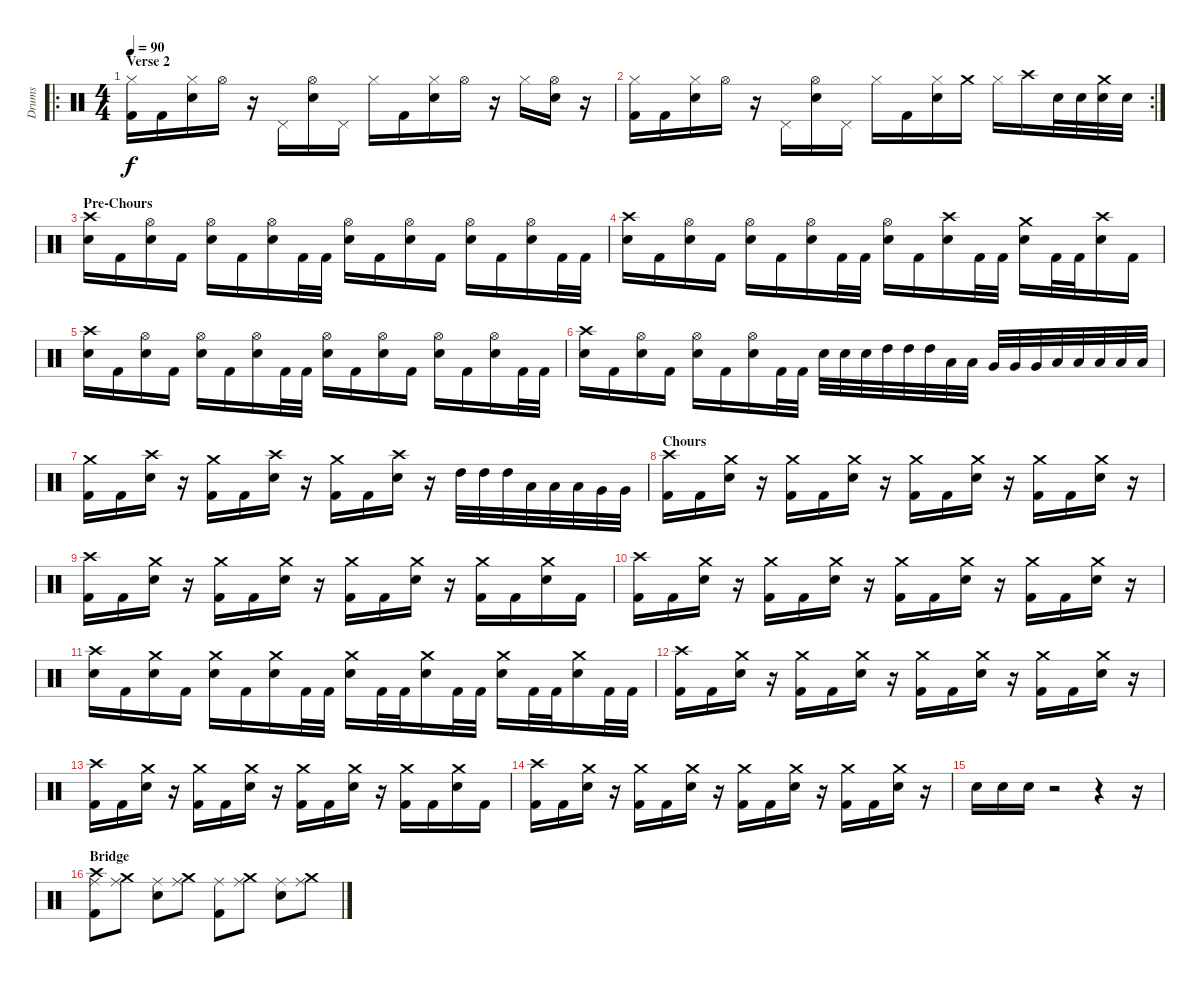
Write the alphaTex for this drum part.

\track ("Drums" "Drums") {instrument percussion}
\staff {score}
\articulation defaults
\ro
\ts (4 4)
\section ("" "Verse 2")
\tempo 90
\clef neutral
\ks c
("Hi-Hat (closed)" "Kick (hit) 2").16{dy f} "Kick (hit) 2".16 ("Hi-Hat (closed)" "Snare (hit) 2").16 "Hi-Hat (open)".16 r.16 "Pedal Hi-Hat (hit)".16 ("Hi-Hat (open)" "Snare (hit) 2").16 "Pedal Hi-Hat (hit)".16 "Hi-Hat (closed)".16 "Kick (hit) 2".16 ("Hi-Hat (closed)" "Snare (hit) 2").16 "Hi-Hat (open)".16 r.16 "Hi-Hat (closed)".16 ("Hi-Hat (open)" "Snare (hit) 2").16 r.16 |
\rc 2
("Hi-Hat (closed)" "Kick (hit) 2").16 "Kick (hit) 2".16 ("Hi-Hat (closed)" "Snare (hit) 2").16 "Hi-Hat (open)".16 r.16 "Pedal Hi-Hat (hit)".16 ("Hi-Hat (open)" "Snare (hit) 2").16 "Pedal Hi-Hat (hit)".16 "Hi-Hat (closed)".16 "Kick (hit) 2".16 ("Hi-Hat (closed)" "Snare (hit) 2").16 "Crash medium (hit)".16 "Hi-Hat (closed)".16 "Crash high (hit)".16 "Snare (hit) 2".32 "Snare (hit) 2".32 ("Crash medium (hit)" "Snare (hit) 2").32 "Snare (hit) 2".32 |
\section ("" "Pre-Chours")
("Crash high (hit)" "Snare (hit) 2").16 "Kick (hit) 2".16 ("Hi-Hat (open)" "Snare (hit) 2").16 "Kick (hit) 2".16 ("Hi-Hat (open)" "Snare (hit) 2").16 "Kick (hit) 2".16 ("Hi-Hat (open)" "Snare (hit) 2").16 "Kick (hit) 2".32 "Kick (hit) 2".32 ("Hi-Hat (open)" "Snare (hit) 2").16 "Kick (hit) 2".16 ("Hi-Hat (open)" "Snare (hit) 2").16 "Kick (hit) 2".16 ("Hi-Hat (open)" "Snare (hit) 2").16 "Kick (hit) 2".16 ("Hi-Hat (open)" "Snare (hit) 2").16 "Kick (hit) 2".32 "Kick (hit) 2".32 |
("Crash high (hit)" "Snare (hit) 2").16 "Kick (hit) 2".16 ("Hi-Hat (open)" "Snare (hit) 2").16 "Kick (hit) 2".16 ("Hi-Hat (open)" "Snare (hit) 2").16 "Kick (hit) 2".16 ("Hi-Hat (open)" "Snare (hit) 2").16 "Kick (hit) 2".32 "Kick (hit) 2".32 ("Hi-Hat (open)" "Snare (hit) 2").16 "Kick (hit) 2".16 ("Crash high (hit)" "Snare (hit) 2").16 "Kick (hit) 2".32 "Kick (hit) 2".32 ("Crash medium (hit)" "Snare (hit) 2").16 "Kick (hit) 2".32 "Kick (hit) 2".32 ("Crash high (hit)" "Snare (hit) 2").16 "Kick (hit) 2".16 |
("Crash high (hit)" "Snare (hit) 2").16 "Kick (hit) 2".16 ("Hi-Hat (open)" "Snare (hit) 2").16 "Kick (hit) 2".16 ("Hi-Hat (open)" "Snare (hit) 2").16 "Kick (hit) 2".16 ("Hi-Hat (open)" "Snare (hit) 2").16 "Kick (hit) 2".32 "Kick (hit) 2".32 ("Hi-Hat (open)" "Snare (hit) 2").16 "Kick (hit) 2".16 ("Hi-Hat (open)" "Snare (hit) 2").16 "Kick (hit) 2".16 ("Hi-Hat (open)" "Snare (hit) 2").16 "Kick (hit) 2".16 ("Hi-Hat (open)" "Snare (hit) 2").16 "Kick (hit) 2".32 "Kick (hit) 2".32 |
("Crash high (hit)" "Snare (hit) 2").16 "Kick (hit) 2".16 ("Hi-Hat (open)" "Snare (hit) 2").16 "Kick (hit) 2".16 ("Hi-Hat (open)" "Snare (hit) 2").16 "Kick (hit) 2".16 ("Hi-Hat (open)" "Snare (hit) 2").16 "Kick (hit) 2".32 "Kick (hit) 2".32 "Snare (hit) 2".32 "Snare (hit) 2".32 "Snare (hit) 2".32 "High Tom (hit)".32 "High Tom (hit)".32 "High Tom (hit)".32 "Low Tom (hit)".32 "Low Tom (hit)".32 "Very Low Tom (hit)".32 "Very Low Tom (hit)".32 "Very Low Tom (hit)".32 "Low Floor Tom (hit)".32 "Low Floor Tom (hit)".32 "Low Floor Tom (hit)".32 "Low Floor Tom (hit)".32 "Low Floor Tom (hit)".32 |
("Crash medium (hit)" "Kick (hit) 2").16 "Kick (hit) 2".16 ("Crash high (hit)" "Snare (hit) 2").16 r.16 ("Crash medium (hit)" "Kick (hit) 2").16 "Kick (hit) 2".16 ("Crash high (hit)" "Snare (hit) 2").16 r.16 ("Crash medium (hit)" "Kick (hit) 2").16 "Kick (hit) 2".16 ("Crash high (hit)" "Snare (hit) 2").16 r.16 "High Tom (hit)".32 "High Tom (hit)".32 "High Tom (hit)".32 "Low Tom (hit)".32 "Low Tom (hit)".32 "Low Tom (hit)".32 "Very Low Tom (hit)".32 "Very Low Tom (hit)".32 |
\section ("" "Chours")
("Crash high (hit)" "Kick (hit) 2").16 "Kick (hit) 2".16 ("Crash medium (hit)" "Snare (hit) 2").16 r.16 ("Crash medium (hit)" "Kick (hit) 2").16 "Kick (hit) 2".16 ("Crash medium (hit)" "Snare (hit) 2").16 r.16 ("Crash medium (hit)" "Kick (hit) 2").16 "Kick (hit) 2".16 ("Crash medium (hit)" "Snare (hit) 2").16 r.16 ("Crash medium (hit)" "Kick (hit) 2").16 "Kick (hit) 2".16 ("Crash medium (hit)" "Snare (hit) 2").16 r.16 |
("Crash high (hit)" "Kick (hit) 2").16 "Kick (hit) 2".16 ("Crash medium (hit)" "Snare (hit) 2").16 r.16 ("Crash medium (hit)" "Kick (hit) 2").16 "Kick (hit) 2".16 ("Crash medium (hit)" "Snare (hit) 2").16 r.16 ("Crash medium (hit)" "Kick (hit) 2").16 "Kick (hit) 2".16 ("Crash medium (hit)" "Snare (hit) 2").16 r.16 ("Crash medium (hit)" "Kick (hit) 2").16 "Kick (hit) 2".16 ("Crash medium (hit)" "Snare (hit) 2").16 "Kick (hit) 2".16 |
("Crash high (hit)" "Kick (hit) 2").16 "Kick (hit) 2".16 ("Crash medium (hit)" "Snare (hit) 2").16 r.16 ("Crash medium (hit)" "Kick (hit) 2").16 "Kick (hit) 2".16 ("Crash medium (hit)" "Snare (hit) 2").16 r.16 ("Crash medium (hit)" "Kick (hit) 2").16 "Kick (hit) 2".16 ("Crash medium (hit)" "Snare (hit) 2").16 r.16 ("Crash medium (hit)" "Kick (hit) 2").16 "Kick (hit) 2".16 ("Crash medium (hit)" "Snare (hit) 2").16 r.16 |
("Crash high (hit)" "Snare (hit) 2").16 "Kick (hit) 2".16 ("Crash medium (hit)" "Snare (hit) 2").16 "Kick (hit) 2".16 ("Crash medium (hit)" "Snare (hit) 2").16 "Kick (hit) 2".16 ("Crash medium (hit)" "Snare (hit) 2").16 "Kick (hit) 2".32 "Kick (hit) 2".32 ("Crash medium (hit)" "Snare (hit) 2").16 "Kick (hit) 2".32 "Kick (hit) 2".32 ("Crash medium (hit)" "Snare (hit) 2").16 "Kick (hit) 2".32 "Kick (hit) 2".32 ("Crash medium (hit)" "Snare (hit) 2").16 "Kick (hit) 2".32 "Kick (hit) 2".32 ("Crash medium (hit)" "Snare (hit) 2").16 "Kick (hit) 2".32 "Kick (hit) 2".32 |
("Crash high (hit)" "Kick (hit) 2").16 "Kick (hit) 2".16 ("Crash medium (hit)" "Snare (hit) 2").16 r.16 ("Crash medium (hit)" "Kick (hit) 2").16 "Kick (hit) 2".16 ("Crash medium (hit)" "Snare (hit) 2").16 r.16 ("Crash medium (hit)" "Kick (hit) 2").16 "Kick (hit) 2".16 ("Crash medium (hit)" "Snare (hit) 2").16 r.16 ("Crash medium (hit)" "Kick (hit) 2").16 "Kick (hit) 2".16 ("Crash medium (hit)" "Snare (hit) 2").16 r.16 |
("Crash high (hit)" "Kick (hit) 2").16 "Kick (hit) 2".16 ("Crash medium (hit)" "Snare (hit) 2").16 r.16 ("Crash medium (hit)" "Kick (hit) 2").16 "Kick (hit) 2".16 ("Crash medium (hit)" "Snare (hit) 2").16 r.16 ("Crash medium (hit)" "Kick (hit) 2").16 "Kick (hit) 2".16 ("Crash medium (hit)" "Snare (hit) 2").16 r.16 ("Crash medium (hit)" "Kick (hit) 2").16 "Kick (hit) 2".16 ("Crash medium (hit)" "Snare (hit) 2").16 "Kick (hit) 2".16 |
("Crash high (hit)" "Kick (hit) 2").16 "Kick (hit) 2".16 ("Crash medium (hit)" "Snare (hit) 2").16 r.16 ("Crash medium (hit)" "Kick (hit) 2").16 "Kick (hit) 2".16 ("Crash medium (hit)" "Snare (hit) 2").16 r.16 ("Crash medium (hit)" "Kick (hit) 2").16 "Kick (hit) 2".16 ("Crash medium (hit)" "Snare (hit) 2").16 r.16 ("Crash medium (hit)" "Kick (hit) 2").16 "Kick (hit) 2".16 ("Crash medium (hit)" "Snare (hit) 2").16 r.16 |
"Snare (hit) 2".16 "Snare (hit) 2".16 "Snare (hit) 2".16 r.2 r.4 r.16 |
\section ("" "Bridge")
("Crash high (hit)" "Ride (middle)" "Kick (hit) 2").8 ("Crash medium (hit)" "Ride (middle)").8 ("Ride (middle)" "Snare (hit) 2").8 ("Crash medium (hit)" "Ride (middle)").8 ("Ride (middle)" "Kick (hit) 2").8 ("Crash medium (hit)" "Ride (middle)").8 ("Ride (middle)" "Snare (hit) 2").8 ("Crash medium (hit)" "Ride (middle)").8
